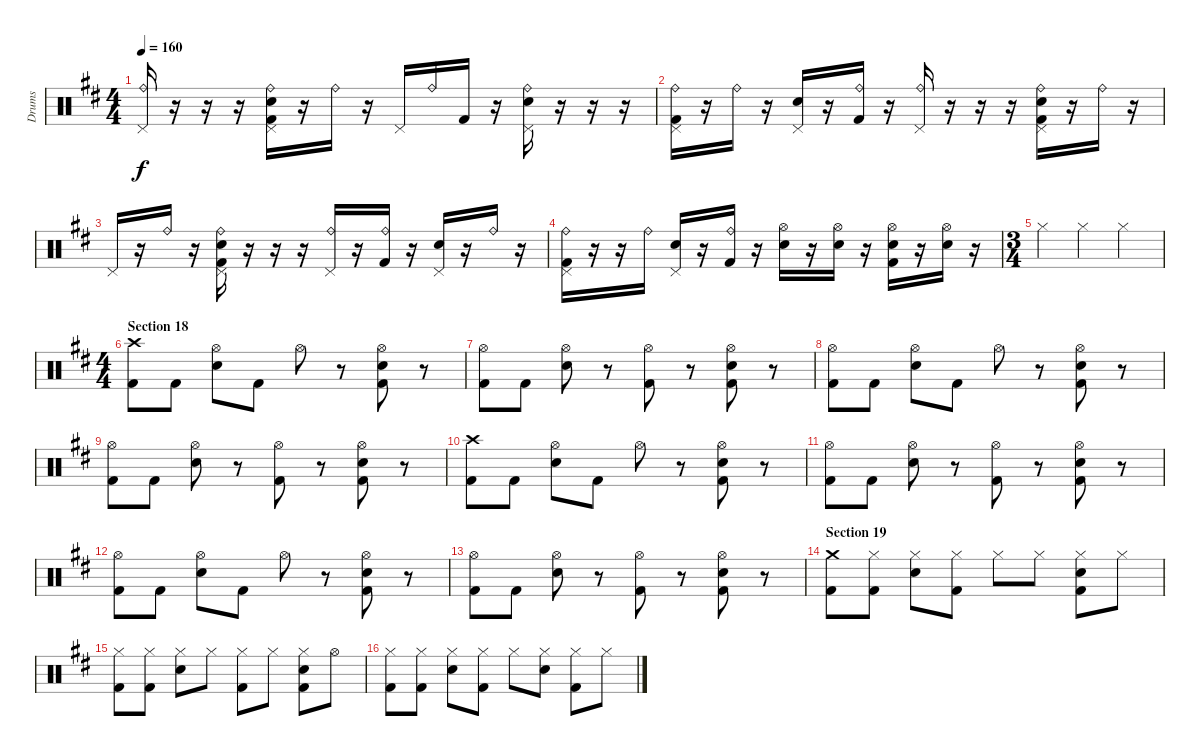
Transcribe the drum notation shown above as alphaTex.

\track ("Drums" "Drums") {instrument percussion}
\staff {score}
\articulation defaults
\ts (4 4)
\tempo 160
\clef neutral
\ks bminor
("Ride (bell)" "Pedal Hi-Hat (hit)").16{dy f} r.16 r.16 r.16 ("Ride (bell)" "Pedal Hi-Hat (hit)" "Snare (hit) 2" "Kick (hit) 2").16 r.16 "Ride (bell)".16 r.16 "Pedal Hi-Hat (hit)".16 "Ride (bell)".16 "Kick (hit) 2".16 r.16 ("Ride (bell)" "Pedal Hi-Hat (hit)" "Snare (hit) 2").16 r.16 r.16 r.16 |
("Ride (bell)" "Pedal Hi-Hat (hit)" "Kick (hit) 2").16 r.16 "Ride (bell)".16 r.16 ("Pedal Hi-Hat (hit)" "Snare (hit) 2").16 r.16 ("Ride (bell)" "Kick (hit) 2").16 r.16 ("Ride (bell)" "Pedal Hi-Hat (hit)").16 r.16 r.16 r.16 ("Ride (bell)" "Pedal Hi-Hat (hit)" "Snare (hit) 2" "Kick (hit) 2").16 r.16 "Ride (bell)".16 r.16 |
"Pedal Hi-Hat (hit)".16 r.16 "Ride (bell)".16 r.16 ("Ride (bell)" "Pedal Hi-Hat (hit)" "Snare (hit) 2" "Kick (hit) 2").16 r.16 r.16 r.16 ("Ride (bell)" "Pedal Hi-Hat (hit)").16 r.16 ("Ride (bell)" "Kick (hit) 2").16 r.16 ("Pedal Hi-Hat (hit)" "Snare (hit) 2").16 r.16 "Ride (bell)".16 r.16 |
("Ride (bell)" "Pedal Hi-Hat (hit)" "Kick (hit) 2").16 r.16 r.16 "Ride (bell)".16 ("Pedal Hi-Hat (hit)" "Snare (hit) 2").16 r.16 ("Ride (bell)" "Kick (hit) 2").16 r.16 ("Hi-Hat (open)" "Snare (hit) 2").16 r.16 ("Hi-Hat (open)" "Snare (hit) 2").16 r.16 ("Hi-Hat (open)" "Snare (hit) 2" "Kick (hit) 2").16 r.16 ("Hi-Hat (open)" "Snare (hit) 2").16 r.16 |
\ts (3 4)
"Hi-Hat (closed)".4 "Hi-Hat (closed)".4 "Hi-Hat (closed)".4 |
\ts (4 4)
\section ("" "Section 18")
("Crash high (hit)" "Kick (hit) 2").8{volume 14} "Kick (hit) 2".8 ("Hi-Hat (open)" "Snare (hit) 2").8 "Kick (hit) 2".8 "Hi-Hat (open)".8 r.8 ("Hi-Hat (open)" "Snare (hit) 2" "Kick (hit) 2").8 r.8 |
("Hi-Hat (open)" "Kick (hit) 2").8 "Kick (hit) 2".8 ("Hi-Hat (open)" "Snare (hit) 2").8 r.8 ("Hi-Hat (open)" "Kick (hit) 2").8 r.8 ("Hi-Hat (open)" "Snare (hit) 2" "Kick (hit) 2").8 r.8 |
("Hi-Hat (open)" "Kick (hit) 2").8 "Kick (hit) 2".8 ("Hi-Hat (open)" "Snare (hit) 2").8 "Kick (hit) 2".8 "Hi-Hat (open)".8 r.8 ("Hi-Hat (open)" "Snare (hit) 2" "Kick (hit) 2").8 r.8 |
("Hi-Hat (open)" "Kick (hit) 2").8 "Kick (hit) 2".8 ("Hi-Hat (open)" "Snare (hit) 2").8 r.8 ("Hi-Hat (open)" "Kick (hit) 2").8 r.8 ("Hi-Hat (open)" "Snare (hit) 2" "Kick (hit) 2").8 r.8 |
("Crash high (hit)" "Kick (hit) 2").8 "Kick (hit) 2".8 ("Hi-Hat (open)" "Snare (hit) 2").8 "Kick (hit) 2".8 "Hi-Hat (open)".8 r.8 ("Hi-Hat (open)" "Snare (hit) 2" "Kick (hit) 2").8 r.8 |
("Hi-Hat (open)" "Kick (hit) 2").8 "Kick (hit) 2".8 ("Hi-Hat (open)" "Snare (hit) 2").8 r.8 ("Hi-Hat (open)" "Kick (hit) 2").8 r.8 ("Hi-Hat (open)" "Snare (hit) 2" "Kick (hit) 2").8 r.8 |
("Hi-Hat (open)" "Kick (hit) 2").8 "Kick (hit) 2".8 ("Hi-Hat (open)" "Snare (hit) 2").8 "Kick (hit) 2".8 "Hi-Hat (open)".8 r.8 ("Hi-Hat (open)" "Snare (hit) 2" "Kick (hit) 2").8 r.8 |
("Hi-Hat (open)" "Kick (hit) 2").8 "Kick (hit) 2".8 ("Hi-Hat (open)" "Snare (hit) 2").8 r.8 ("Hi-Hat (open)" "Kick (hit) 2").8 r.8 ("Hi-Hat (open)" "Snare (hit) 2" "Kick (hit) 2").8 r.8 |
\section ("" "Section 19")
("Crash medium (hit)" "Kick (hit) 2").8 ("Hi-Hat (closed)" "Kick (hit) 2").8 ("Hi-Hat (closed)" "Snare (hit) 2").8 ("Hi-Hat (closed)" "Kick (hit) 2").8 "Hi-Hat (closed)".8 "Hi-Hat (closed)".8 ("Hi-Hat (closed)" "Snare (hit) 2" "Kick (hit) 2").8 "Hi-Hat (closed)".8 |
("Hi-Hat (closed)" "Kick (hit) 2").8 ("Hi-Hat (closed)" "Kick (hit) 2").8 ("Hi-Hat (closed)" "Snare (hit) 2").8 "Hi-Hat (closed)".8 ("Hi-Hat (closed)" "Kick (hit) 2").8 "Hi-Hat (closed)".8 ("Hi-Hat (closed)" "Snare (hit) 2" "Kick (hit) 2").8 "Hi-Hat (open)".8 |
("Hi-Hat (closed)" "Kick (hit) 2").8 ("Hi-Hat (closed)" "Kick (hit) 2").8 ("Hi-Hat (closed)" "Snare (hit) 2").8 ("Hi-Hat (closed)" "Kick (hit) 2").8 "Hi-Hat (closed)".8 ("Hi-Hat (closed)" "Snare (hit) 2").8 ("Hi-Hat (closed)" "Kick (hit) 2").8 "Hi-Hat (closed)".8
